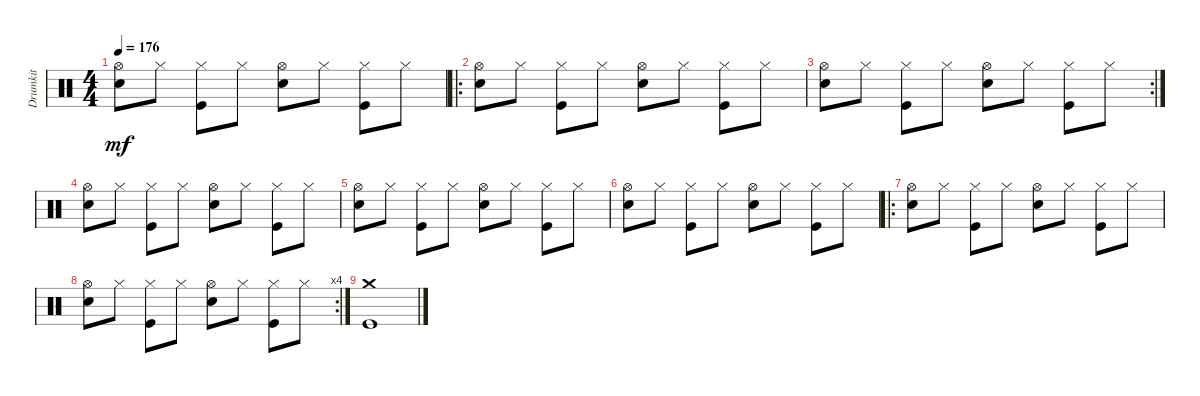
\track ("Drumkit" "Drumkit") {instrument percussion}
\staff {score}
\articulation defaults
\ts (4 4)
\tempo 176
\clef neutral
\ks c
("Hi-Hat (open)" "Snare (hit) 2").8{dy mf} "Hi-Hat (closed)".8 ("Hi-Hat (closed)" "Kick (hit)").8 "Hi-Hat (closed)".8 ("Hi-Hat (open)" "Snare (hit) 2").8 "Hi-Hat (closed)".8 ("Hi-Hat (closed)" "Kick (hit)").8 "Hi-Hat (closed)".8 |
\ro
("Hi-Hat (open)" "Snare (hit) 2").8 "Hi-Hat (closed)".8 ("Hi-Hat (closed)" "Kick (hit)").8 "Hi-Hat (closed)".8 ("Hi-Hat (open)" "Snare (hit) 2").8 "Hi-Hat (closed)".8 ("Hi-Hat (closed)" "Kick (hit)").8 "Hi-Hat (closed)".8 |
\rc 2
("Hi-Hat (open)" "Snare (hit) 2").8 "Hi-Hat (closed)".8 ("Hi-Hat (closed)" "Kick (hit)").8 "Hi-Hat (closed)".8 ("Hi-Hat (open)" "Snare (hit) 2").8 "Hi-Hat (closed)".8 ("Hi-Hat (closed)" "Kick (hit)").8 "Hi-Hat (closed)".8 |
("Hi-Hat (open)" "Snare (hit) 2").8 "Hi-Hat (closed)".8 ("Hi-Hat (closed)" "Kick (hit)").8 "Hi-Hat (closed)".8 ("Hi-Hat (open)" "Snare (hit) 2").8 "Hi-Hat (closed)".8 ("Hi-Hat (closed)" "Kick (hit)").8 "Hi-Hat (closed)".8 |
("Hi-Hat (open)" "Snare (hit) 2").8 "Hi-Hat (closed)".8 ("Hi-Hat (closed)" "Kick (hit)").8 "Hi-Hat (closed)".8 ("Hi-Hat (open)" "Snare (hit) 2").8 "Hi-Hat (closed)".8 ("Hi-Hat (closed)" "Kick (hit)").8 "Hi-Hat (closed)".8 |
("Hi-Hat (open)" "Snare (hit) 2").8 "Hi-Hat (closed)".8 ("Hi-Hat (closed)" "Kick (hit)").8 "Hi-Hat (closed)".8 ("Hi-Hat (open)" "Snare (hit) 2").8 "Hi-Hat (closed)".8 ("Hi-Hat (closed)" "Kick (hit)").8 "Hi-Hat (closed)".8 |
\ro
("Hi-Hat (open)" "Snare (hit) 2").8 "Hi-Hat (closed)".8 ("Hi-Hat (closed)" "Kick (hit)").8 "Hi-Hat (closed)".8 ("Hi-Hat (open)" "Snare (hit) 2").8 "Hi-Hat (closed)".8 ("Hi-Hat (closed)" "Kick (hit)").8 "Hi-Hat (closed)".8 |
\rc 4
("Hi-Hat (open)" "Snare (hit) 2").8 "Hi-Hat (closed)".8 ("Hi-Hat (closed)" "Kick (hit)").8 "Hi-Hat (closed)".8 ("Hi-Hat (open)" "Snare (hit) 2").8 "Hi-Hat (closed)".8 ("Hi-Hat (closed)" "Kick (hit)").8 "Hi-Hat (closed)".8 |
("Kick (hit)" "Crash medium (hit)").1
